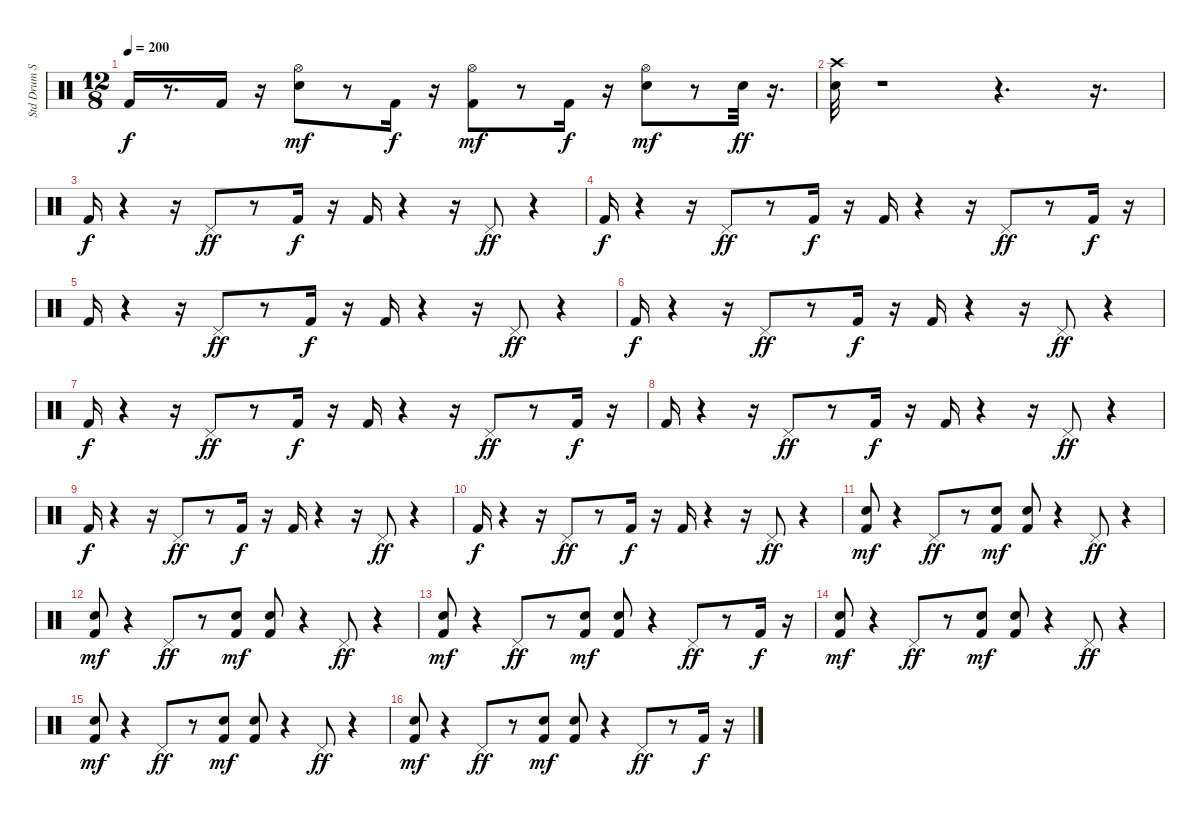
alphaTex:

\track ("Std Drum Set" "Std Drum S") {instrument percussion}
\staff {score}
\articulation defaults
\ts (12 8)
\tempo 200
\clef neutral
\ks c "Kick (hit) 2".16{dy f}
r.8{d} "Kick (hit) 2".16 r.16 ("Snare (hit) 2" "Hi-Hat (open)").8{dy mf} r.8 "Kick (hit) 2".16{dy f} r.16 ("Kick (hit) 2" "Hi-Hat (open)").8{dy mf} r.8 "Kick (hit) 2".16{dy f} r.16 ("Snare (hit) 2" "Hi-Hat (open)").8{dy mf} r.8 "Snare (hit) 2".32{dy ff} r.16{d} |
("Snare (hit) 2" "Crash high (hit)").32 r.1 r.4{d} r.16{d} |
"Kick (hit) 2".16{dy f} r.4 r.16 "Pedal Hi-Hat (hit)".8{dy ff} r.8 "Kick (hit) 2".16{dy f} r.16 "Kick (hit) 2".16 r.4 r.16 "Pedal Hi-Hat (hit)".8{dy ff} r.4 |
"Kick (hit) 2".16{dy f} r.4 r.16 "Pedal Hi-Hat (hit)".8{dy ff} r.8 "Kick (hit) 2".16{dy f} r.16 "Kick (hit) 2".16 r.4 r.16 "Pedal Hi-Hat (hit)".8{dy ff} r.8 "Kick (hit) 2".16{dy f} r.16 |
"Kick (hit) 2".16 r.4 r.16 "Pedal Hi-Hat (hit)".8{dy ff} r.8 "Kick (hit) 2".16{dy f} r.16 "Kick (hit) 2".16 r.4 r.16 "Pedal Hi-Hat (hit)".8{dy ff} r.4 |
"Kick (hit) 2".16{dy f} r.4 r.16 "Pedal Hi-Hat (hit)".8{dy ff} r.8 "Kick (hit) 2".16{dy f} r.16 "Kick (hit) 2".16 r.4 r.16 "Pedal Hi-Hat (hit)".8{dy ff} r.4 |
"Kick (hit) 2".16{dy f} r.4 r.16 "Pedal Hi-Hat (hit)".8{dy ff} r.8 "Kick (hit) 2".16{dy f} r.16 "Kick (hit) 2".16 r.4 r.16 "Pedal Hi-Hat (hit)".8{dy ff} r.8 "Kick (hit) 2".16{dy f} r.16 |
"Kick (hit) 2".16 r.4 r.16 "Pedal Hi-Hat (hit)".8{dy ff} r.8 "Kick (hit) 2".16{dy f} r.16 "Kick (hit) 2".16 r.4 r.16 "Pedal Hi-Hat (hit)".8{dy ff} r.4 |
"Kick (hit) 2".16{dy f} r.4 r.16 "Pedal Hi-Hat (hit)".8{dy ff} r.8 "Kick (hit) 2".16{dy f} r.16 "Kick (hit) 2".16 r.4 r.16 "Pedal Hi-Hat (hit)".8{dy ff} r.4 |
"Kick (hit) 2".16{dy f} r.4 r.16 "Pedal Hi-Hat (hit)".8{dy ff} r.8 "Kick (hit) 2".16{dy f} r.16 "Kick (hit) 2".16 r.4 r.16 "Pedal Hi-Hat (hit)".8{dy ff} r.4 |
("Kick (hit) 2" "Hand Clap (hit)").8{dy mf} r.4 "Pedal Hi-Hat (hit)".8{dy ff} r.8 ("Kick (hit) 2" "Hand Clap (hit)").8{dy mf} ("Kick (hit) 2" "Hand Clap (hit)").8 r.4 "Pedal Hi-Hat (hit)".8{dy ff} r.4 |
("Kick (hit) 2" "Hand Clap (hit)").8{dy mf} r.4 "Pedal Hi-Hat (hit)".8{dy ff} r.8 ("Kick (hit) 2" "Hand Clap (hit)").8{dy mf} ("Kick (hit) 2" "Hand Clap (hit)").8 r.4 "Pedal Hi-Hat (hit)".8{dy ff} r.4 |
("Kick (hit) 2" "Hand Clap (hit)").8{dy mf} r.4 "Pedal Hi-Hat (hit)".8{dy ff} r.8 ("Kick (hit) 2" "Hand Clap (hit)").8{dy mf} ("Kick (hit) 2" "Hand Clap (hit)").8 r.4 "Pedal Hi-Hat (hit)".8{dy ff} r.8 "Kick (hit) 2".16{dy f} r.16 |
("Kick (hit) 2" "Hand Clap (hit)").8{dy mf} r.4 "Pedal Hi-Hat (hit)".8{dy ff} r.8 ("Kick (hit) 2" "Hand Clap (hit)").8{dy mf} ("Kick (hit) 2" "Hand Clap (hit)").8 r.4 "Pedal Hi-Hat (hit)".8{dy ff} r.4 |
("Kick (hit) 2" "Hand Clap (hit)").8{dy mf} r.4 "Pedal Hi-Hat (hit)".8{dy ff} r.8 ("Kick (hit) 2" "Hand Clap (hit)").8{dy mf} ("Kick (hit) 2" "Hand Clap (hit)").8 r.4 "Pedal Hi-Hat (hit)".8{dy ff} r.4 |
("Kick (hit) 2" "Hand Clap (hit)").8{dy mf} r.4 "Pedal Hi-Hat (hit)".8{dy ff} r.8 ("Kick (hit) 2" "Hand Clap (hit)").8{dy mf} ("Kick (hit) 2" "Hand Clap (hit)").8 r.4 "Pedal Hi-Hat (hit)".8{dy ff} r.8 "Kick (hit) 2".16{dy f} r.16
